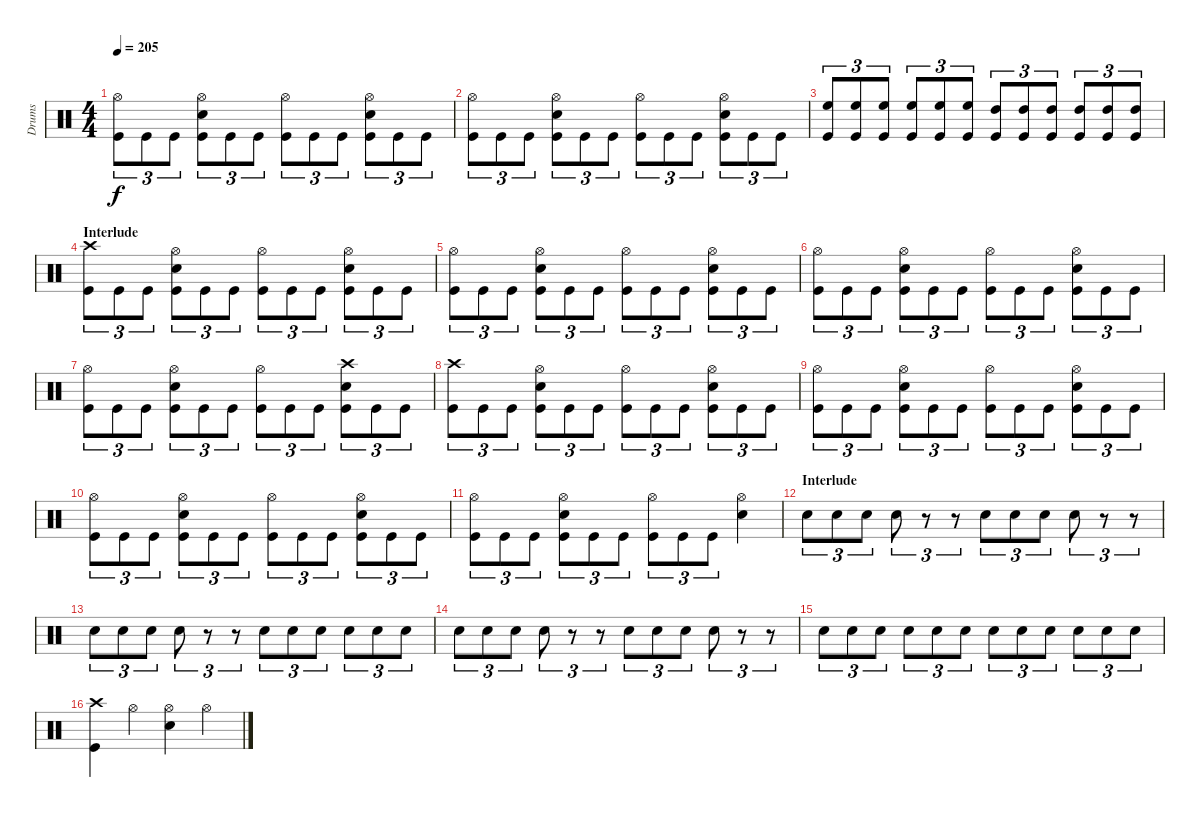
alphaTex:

\track ("Drums" "Drums") {instrument percussion}
\staff {score}
\articulation defaults
\ts (4 4)
\tempo 205
\clef neutral
\ks c
("Hi-Hat (open)" "Kick (hit)").8{tu (3 2) dy f} "Kick (hit)".8{tu (3 2)} "Kick (hit)".8{tu (3 2)} ("Hi-Hat (open)" "Snare (hit) 2" "Kick (hit)").8{tu (3 2)} "Kick (hit)".8{tu (3 2)} "Kick (hit)".8{tu (3 2)} ("Hi-Hat (open)" "Kick (hit)").8{tu (3 2)} "Kick (hit)".8{tu (3 2)} "Kick (hit)".8{tu (3 2)} ("Hi-Hat (open)" "Snare (hit) 2" "Kick (hit)").8{tu (3 2)} "Kick (hit)".8{tu (3 2)} "Kick (hit)".8{tu (3 2)} |
("Hi-Hat (open)" "Kick (hit)").8{tu (3 2)} "Kick (hit)".8{tu (3 2)} "Kick (hit)".8{tu (3 2)} ("Hi-Hat (open)" "Snare (hit) 2" "Kick (hit)").8{tu (3 2)} "Kick (hit)".8{tu (3 2)} "Kick (hit)".8{tu (3 2)} ("Hi-Hat (open)" "Kick (hit)").8{tu (3 2)} "Kick (hit)".8{tu (3 2)} "Kick (hit)".8{tu (3 2)} ("Hi-Hat (open)" "Snare (hit) 2" "Kick (hit)").8{tu (3 2)} "Kick (hit)".8{tu (3 2)} "Kick (hit)".8{tu (3 2)} |
("High Floor Tom (hit)" "Kick (hit)").8{tu (3 2)} ("High Floor Tom (hit)" "Kick (hit)").8{tu (3 2)} ("High Floor Tom (hit)" "Kick (hit)").8{tu (3 2)} ("High Floor Tom (hit)" "Kick (hit)").8{tu (3 2)} ("High Floor Tom (hit)" "Kick (hit)").8{tu (3 2)} ("High Floor Tom (hit)" "Kick (hit)").8{tu (3 2)} ("High Tom (hit)" "Kick (hit)").8{tu (3 2)} ("High Tom (hit)" "Kick (hit)").8{tu (3 2)} ("High Tom (hit)" "Kick (hit)").8{tu (3 2)} ("High Tom (hit)" "Kick (hit)").8{tu (3 2)} ("High Tom (hit)" "Kick (hit)").8{tu (3 2)} ("High Tom (hit)" "Kick (hit)").8{tu (3 2)} |
\section ("" "Interlude")
("Crash high (hit)" "Kick (hit)").8{tu (3 2)} "Kick (hit)".8{tu (3 2)} "Kick (hit)".8{tu (3 2)} ("Hi-Hat (open)" "Snare (hit) 2" "Kick (hit)").8{tu (3 2)} "Kick (hit)".8{tu (3 2)} "Kick (hit)".8{tu (3 2)} ("Hi-Hat (open)" "Kick (hit)").8{tu (3 2)} "Kick (hit)".8{tu (3 2)} "Kick (hit)".8{tu (3 2)} ("Hi-Hat (open)" "Snare (hit) 2" "Kick (hit)").8{tu (3 2)} "Kick (hit)".8{tu (3 2)} "Kick (hit)".8{tu (3 2)} |
("Hi-Hat (open)" "Kick (hit)").8{tu (3 2)} "Kick (hit)".8{tu (3 2)} "Kick (hit)".8{tu (3 2)} ("Hi-Hat (open)" "Snare (hit) 2" "Kick (hit)").8{tu (3 2)} "Kick (hit)".8{tu (3 2)} "Kick (hit)".8{tu (3 2)} ("Hi-Hat (open)" "Kick (hit)").8{tu (3 2)} "Kick (hit)".8{tu (3 2)} "Kick (hit)".8{tu (3 2)} ("Hi-Hat (open)" "Snare (hit) 2" "Kick (hit)").8{tu (3 2)} "Kick (hit)".8{tu (3 2)} "Kick (hit)".8{tu (3 2)} |
("Hi-Hat (open)" "Kick (hit)").8{tu (3 2)} "Kick (hit)".8{tu (3 2)} "Kick (hit)".8{tu (3 2)} ("Hi-Hat (open)" "Snare (hit) 2" "Kick (hit)").8{tu (3 2)} "Kick (hit)".8{tu (3 2)} "Kick (hit)".8{tu (3 2)} ("Hi-Hat (open)" "Kick (hit)").8{tu (3 2)} "Kick (hit)".8{tu (3 2)} "Kick (hit)".8{tu (3 2)} ("Hi-Hat (open)" "Snare (hit) 2" "Kick (hit)").8{tu (3 2)} "Kick (hit)".8{tu (3 2)} "Kick (hit)".8{tu (3 2)} |
("Hi-Hat (open)" "Kick (hit)").8{tu (3 2)} "Kick (hit)".8{tu (3 2)} "Kick (hit)".8{tu (3 2)} ("Hi-Hat (open)" "Snare (hit) 2" "Kick (hit)").8{tu (3 2)} "Kick (hit)".8{tu (3 2)} "Kick (hit)".8{tu (3 2)} ("Hi-Hat (open)" "Kick (hit)").8{tu (3 2)} "Kick (hit)".8{tu (3 2)} "Kick (hit)".8{tu (3 2)} ("Crash high (hit)" "Snare (hit) 2" "Kick (hit)").8{tu (3 2)} "Kick (hit)".8{tu (3 2)} "Kick (hit)".8{tu (3 2)} |
("Crash high (hit)" "Kick (hit)").8{tu (3 2)} "Kick (hit)".8{tu (3 2)} "Kick (hit)".8{tu (3 2)} ("Hi-Hat (open)" "Snare (hit) 2" "Kick (hit)").8{tu (3 2)} "Kick (hit)".8{tu (3 2)} "Kick (hit)".8{tu (3 2)} ("Hi-Hat (open)" "Kick (hit)").8{tu (3 2)} "Kick (hit)".8{tu (3 2)} "Kick (hit)".8{tu (3 2)} ("Hi-Hat (open)" "Snare (hit) 2" "Kick (hit)").8{tu (3 2)} "Kick (hit)".8{tu (3 2)} "Kick (hit)".8{tu (3 2)} |
("Hi-Hat (open)" "Kick (hit)").8{tu (3 2)} "Kick (hit)".8{tu (3 2)} "Kick (hit)".8{tu (3 2)} ("Hi-Hat (open)" "Snare (hit) 2" "Kick (hit)").8{tu (3 2)} "Kick (hit)".8{tu (3 2)} "Kick (hit)".8{tu (3 2)} ("Hi-Hat (open)" "Kick (hit)").8{tu (3 2)} "Kick (hit)".8{tu (3 2)} "Kick (hit)".8{tu (3 2)} ("Hi-Hat (open)" "Snare (hit) 2" "Kick (hit)").8{tu (3 2)} "Kick (hit)".8{tu (3 2)} "Kick (hit)".8{tu (3 2)} |
("Hi-Hat (open)" "Kick (hit)").8{tu (3 2)} "Kick (hit)".8{tu (3 2)} "Kick (hit)".8{tu (3 2)} ("Hi-Hat (open)" "Snare (hit) 2" "Kick (hit)").8{tu (3 2)} "Kick (hit)".8{tu (3 2)} "Kick (hit)".8{tu (3 2)} ("Hi-Hat (open)" "Kick (hit)").8{tu (3 2)} "Kick (hit)".8{tu (3 2)} "Kick (hit)".8{tu (3 2)} ("Hi-Hat (open)" "Snare (hit) 2" "Kick (hit)").8{tu (3 2)} "Kick (hit)".8{tu (3 2)} "Kick (hit)".8{tu (3 2)} |
("Hi-Hat (open)" "Kick (hit)").8{tu (3 2)} "Kick (hit)".8{tu (3 2)} "Kick (hit)".8{tu (3 2)} ("Hi-Hat (open)" "Snare (hit) 2" "Kick (hit)").8{tu (3 2)} "Kick (hit)".8{tu (3 2)} "Kick (hit)".8{tu (3 2)} ("Hi-Hat (open)" "Kick (hit)").8{tu (3 2)} "Kick (hit)".8{tu (3 2)} "Kick (hit)".8{tu (3 2)} ("Hi-Hat (open)" "Snare (hit) 2").4 |
\section ("" "Interlude")
"Snare (hit) 2".8{tu (3 2)} "Snare (hit) 2".8{tu (3 2)} "Snare (hit) 2".8{tu (3 2)} "Snare (hit) 2".8{tu (3 2)} r.8{tu (3 2)} r.8{tu (3 2)} "Snare (hit) 2".8{tu (3 2)} "Snare (hit) 2".8{tu (3 2)} "Snare (hit) 2".8{tu (3 2)} "Snare (hit) 2".8{tu (3 2)} r.8{tu (3 2)} r.8{tu (3 2)} |
"Snare (hit) 2".8{tu (3 2)} "Snare (hit) 2".8{tu (3 2)} "Snare (hit) 2".8{tu (3 2)} "Snare (hit) 2".8{tu (3 2)} r.8{tu (3 2)} r.8{tu (3 2)} "Snare (hit) 2".8{tu (3 2)} "Snare (hit) 2".8{tu (3 2)} "Snare (hit) 2".8{tu (3 2)} "Snare (hit) 2".8{tu (3 2)} "Snare (hit) 2".8{tu (3 2)} "Snare (hit) 2".8{tu (3 2)} |
"Snare (hit) 2".8{tu (3 2)} "Snare (hit) 2".8{tu (3 2)} "Snare (hit) 2".8{tu (3 2)} "Snare (hit) 2".8{tu (3 2)} r.8{tu (3 2)} r.8{tu (3 2)} "Snare (hit) 2".8{tu (3 2)} "Snare (hit) 2".8{tu (3 2)} "Snare (hit) 2".8{tu (3 2)} "Snare (hit) 2".8{tu (3 2)} r.8{tu (3 2)} r.8{tu (3 2)} |
"Snare (hit) 2".8{tu (3 2)} "Snare (hit) 2".8{tu (3 2)} "Snare (hit) 2".8{tu (3 2)} "Snare (hit) 2".8{tu (3 2)} "Snare (hit) 2".8{tu (3 2)} "Snare (hit) 2".8{tu (3 2)} "Snare (hit) 2".8{tu (3 2)} "Snare (hit) 2".8{tu (3 2)} "Snare (hit) 2".8{tu (3 2)} "Snare (hit) 2".8{tu (3 2)} "Snare (hit) 2".8{tu (3 2)} "Snare (hit) 2".8{tu (3 2)} |
("Crash high (hit)" "Kick (hit)").4 "Hi-Hat (open)".4 ("Hi-Hat (open)" "Snare (hit) 2").4 "Hi-Hat (open)".4
